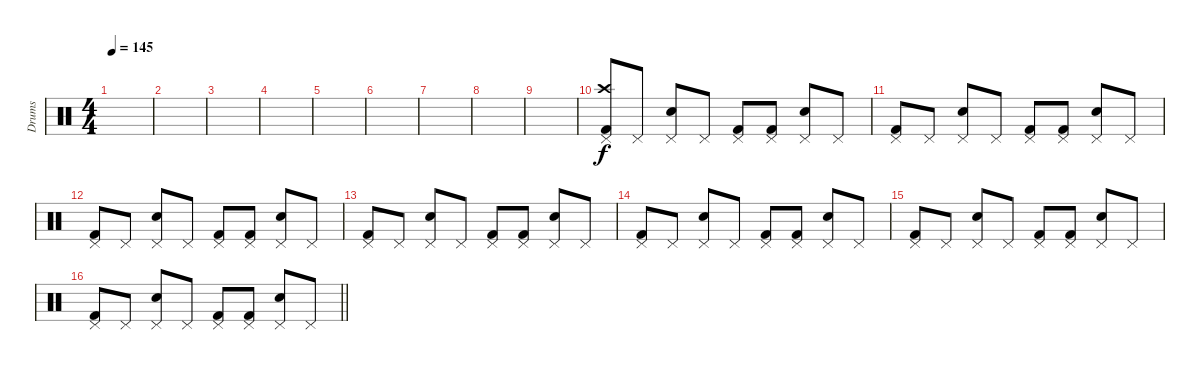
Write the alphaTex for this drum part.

\track ("Drums" "Drums") {instrument percussion}
\staff {score}
\articulation defaults
\ts (4 4)
\tempo 145
\clef neutral
\ks c
|
|
|
|
|
|
|
|
|
("Kick (hit) 2" "Crash high (hit)" "Pedal Hi-Hat (hit)").8 "Pedal Hi-Hat (hit)".8 ("Snare (hit) 2" "Pedal Hi-Hat (hit)").8 "Pedal Hi-Hat (hit)".8 ("Kick (hit) 2" "Pedal Hi-Hat (hit)").8 ("Kick (hit) 2" "Pedal Hi-Hat (hit)").8 ("Snare (hit) 2" "Pedal Hi-Hat (hit)").8 "Pedal Hi-Hat (hit)".8 |
("Kick (hit) 2" "Pedal Hi-Hat (hit)").8 "Pedal Hi-Hat (hit)".8 ("Snare (hit) 2" "Pedal Hi-Hat (hit)").8 "Pedal Hi-Hat (hit)".8 ("Kick (hit) 2" "Pedal Hi-Hat (hit)").8 ("Kick (hit) 2" "Pedal Hi-Hat (hit)").8 ("Snare (hit) 2" "Pedal Hi-Hat (hit)").8 "Pedal Hi-Hat (hit)".8 |
("Kick (hit) 2" "Pedal Hi-Hat (hit)").8 "Pedal Hi-Hat (hit)".8 ("Snare (hit) 2" "Pedal Hi-Hat (hit)").8 "Pedal Hi-Hat (hit)".8 ("Kick (hit) 2" "Pedal Hi-Hat (hit)").8 ("Kick (hit) 2" "Pedal Hi-Hat (hit)").8 ("Snare (hit) 2" "Pedal Hi-Hat (hit)").8 "Pedal Hi-Hat (hit)".8 |
("Kick (hit) 2" "Pedal Hi-Hat (hit)").8 "Pedal Hi-Hat (hit)".8 ("Snare (hit) 2" "Pedal Hi-Hat (hit)").8 "Pedal Hi-Hat (hit)".8 ("Kick (hit) 2" "Pedal Hi-Hat (hit)").8 ("Kick (hit) 2" "Pedal Hi-Hat (hit)").8 ("Snare (hit) 2" "Pedal Hi-Hat (hit)").8 "Pedal Hi-Hat (hit)".8 |
("Kick (hit) 2" "Pedal Hi-Hat (hit)").8 "Pedal Hi-Hat (hit)".8 ("Snare (hit) 2" "Pedal Hi-Hat (hit)").8 "Pedal Hi-Hat (hit)".8 ("Kick (hit) 2" "Pedal Hi-Hat (hit)").8 ("Kick (hit) 2" "Pedal Hi-Hat (hit)").8 ("Snare (hit) 2" "Pedal Hi-Hat (hit)").8 "Pedal Hi-Hat (hit)".8 |
("Kick (hit) 2" "Pedal Hi-Hat (hit)").8 "Pedal Hi-Hat (hit)".8 ("Snare (hit) 2" "Pedal Hi-Hat (hit)").8 "Pedal Hi-Hat (hit)".8 ("Kick (hit) 2" "Pedal Hi-Hat (hit)").8 ("Kick (hit) 2" "Pedal Hi-Hat (hit)").8 ("Snare (hit) 2" "Pedal Hi-Hat (hit)").8 "Pedal Hi-Hat (hit)".8 |
\barLineRight lightlight
("Kick (hit) 2" "Pedal Hi-Hat (hit)").8 "Pedal Hi-Hat (hit)".8 ("Snare (hit) 2" "Pedal Hi-Hat (hit)").8 "Pedal Hi-Hat (hit)".8 ("Kick (hit) 2" "Pedal Hi-Hat (hit)").8 ("Kick (hit) 2" "Pedal Hi-Hat (hit)").8 ("Snare (hit) 2" "Pedal Hi-Hat (hit)").8 "Pedal Hi-Hat (hit)".8
